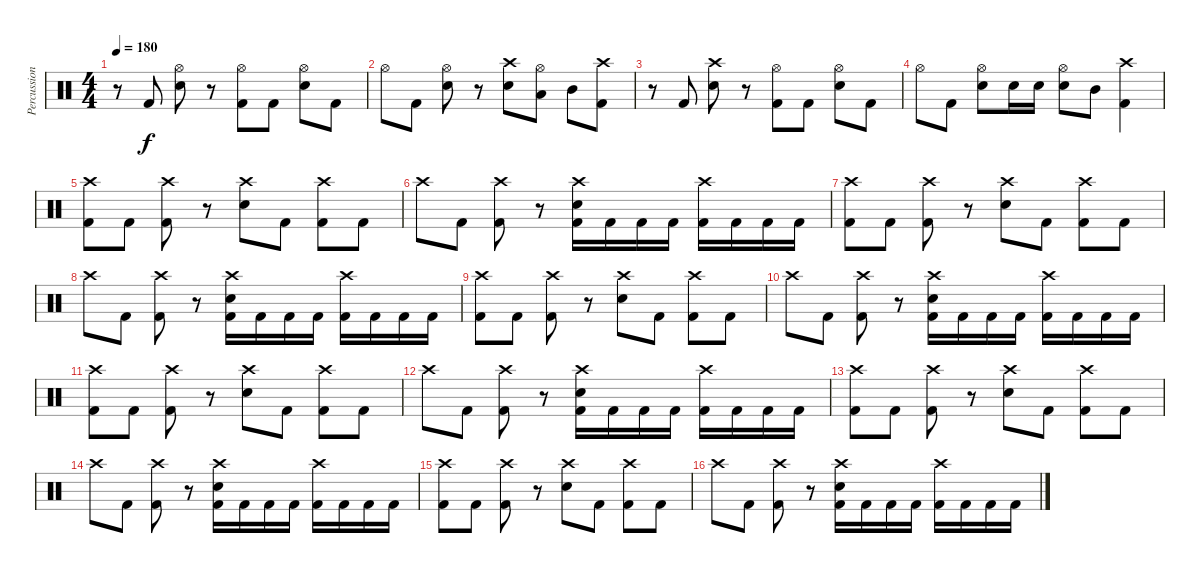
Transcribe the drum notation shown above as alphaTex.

\track ("Percussion" "Percussion") {instrument percussion}
\staff {score}
\articulation defaults
\ts (4 4)
\tempo 180
\clef neutral
\ks c
r.8{dy f} "Kick (hit) 2".8 ("Hi-Hat (open)" "Electric Snare (hit)").8 r.8 ("Hi-Hat (open)" "Kick (hit) 2").8 "Kick (hit) 2".8 ("Hi-Hat (open)" "Electric Snare (hit)").8 "Kick (hit) 2".8 |
"Hi-Hat (open)".8 "Kick (hit) 2".8 ("Hi-Hat (open)" "Electric Snare (hit)").8 r.8 ("Crash high (hit)" "Electric Snare (hit)").8 ("Hi-Hat (open)" "Low Tom (hit)").8 "Mid Tom (hit)".8 ("Crash high (hit)" "Kick (hit) 2").8 |
r.8 "Kick (hit) 2".8 ("Crash high (hit)" "Electric Snare (hit)").8 r.8 ("Hi-Hat (open)" "Kick (hit) 2").8 "Kick (hit) 2".8 ("Hi-Hat (open)" "Electric Snare (hit)").8 "Kick (hit) 2".8 |
"Hi-Hat (open)".8 "Kick (hit) 2".8 ("Hi-Hat (open)" "Electric Snare (hit)").8 "Electric Snare (hit)".16 "Electric Snare (hit)".16 ("Hi-Hat (open)" "Electric Snare (hit)").8 "Mid Tom (hit)".8 ("Crash high (hit)" "Kick (hit) 2").4 |
("Crash high (hit)" "Kick (hit) 2").8 "Kick (hit) 2".8 ("Crash high (hit)" "Kick (hit) 2").8 r.8 ("Crash high (hit)" "Electric Snare (hit)").8 "Kick (hit) 2".8 ("Crash high (hit)" "Kick (hit) 2").8 "Kick (hit) 2".8 |
"Crash high (hit)".8 "Kick (hit) 2".8 ("Crash high (hit)" "Kick (hit) 2").8 r.8 ("Crash high (hit)" "Electric Snare (hit)" "Kick (hit) 2").16 "Kick (hit) 2".16 "Kick (hit) 2".16 "Kick (hit) 2".16 ("Crash high (hit)" "Kick (hit) 2").16 "Kick (hit) 2".16 "Kick (hit) 2".16 "Kick (hit) 2".16 |
("Crash high (hit)" "Kick (hit) 2").8 "Kick (hit) 2".8 ("Crash high (hit)" "Kick (hit) 2").8 r.8 ("Crash high (hit)" "Electric Snare (hit)").8 "Kick (hit) 2".8 ("Crash high (hit)" "Kick (hit) 2").8 "Kick (hit) 2".8 |
"Crash high (hit)".8 "Kick (hit) 2".8 ("Crash high (hit)" "Kick (hit) 2").8 r.8 ("Crash high (hit)" "Electric Snare (hit)" "Kick (hit) 2").16 "Kick (hit) 2".16 "Kick (hit) 2".16 "Kick (hit) 2".16 ("Crash high (hit)" "Kick (hit) 2").16 "Kick (hit) 2".16 "Kick (hit) 2".16 "Kick (hit) 2".16 |
("Crash high (hit)" "Kick (hit) 2").8 "Kick (hit) 2".8 ("Crash high (hit)" "Kick (hit) 2").8 r.8 ("Crash high (hit)" "Electric Snare (hit)").8 "Kick (hit) 2".8 ("Crash high (hit)" "Kick (hit) 2").8 "Kick (hit) 2".8 |
"Crash high (hit)".8 "Kick (hit) 2".8 ("Crash high (hit)" "Kick (hit) 2").8 r.8 ("Crash high (hit)" "Electric Snare (hit)" "Kick (hit) 2").16 "Kick (hit) 2".16 "Kick (hit) 2".16 "Kick (hit) 2".16 ("Crash high (hit)" "Kick (hit) 2").16 "Kick (hit) 2".16 "Kick (hit) 2".16 "Kick (hit) 2".16 |
("Crash high (hit)" "Kick (hit) 2").8 "Kick (hit) 2".8 ("Crash high (hit)" "Kick (hit) 2").8 r.8 ("Crash high (hit)" "Electric Snare (hit)").8 "Kick (hit) 2".8 ("Crash high (hit)" "Kick (hit) 2").8 "Kick (hit) 2".8 |
"Crash high (hit)".8 "Kick (hit) 2".8 ("Crash high (hit)" "Kick (hit) 2").8 r.8 ("Crash high (hit)" "Electric Snare (hit)" "Kick (hit) 2").16 "Kick (hit) 2".16 "Kick (hit) 2".16 "Kick (hit) 2".16 ("Crash high (hit)" "Kick (hit) 2").16 "Kick (hit) 2".16 "Kick (hit) 2".16 "Kick (hit) 2".16 |
("Crash high (hit)" "Kick (hit) 2").8 "Kick (hit) 2".8 ("Crash high (hit)" "Kick (hit) 2").8 r.8 ("Crash high (hit)" "Electric Snare (hit)").8 "Kick (hit) 2".8 ("Crash high (hit)" "Kick (hit) 2").8 "Kick (hit) 2".8 |
"Crash high (hit)".8 "Kick (hit) 2".8 ("Crash high (hit)" "Kick (hit) 2").8 r.8 ("Crash high (hit)" "Electric Snare (hit)" "Kick (hit) 2").16 "Kick (hit) 2".16 "Kick (hit) 2".16 "Kick (hit) 2".16 ("Crash high (hit)" "Kick (hit) 2").16 "Kick (hit) 2".16 "Kick (hit) 2".16 "Kick (hit) 2".16 |
("Crash high (hit)" "Kick (hit) 2").8 "Kick (hit) 2".8 ("Crash high (hit)" "Kick (hit) 2").8 r.8 ("Crash high (hit)" "Electric Snare (hit)").8 "Kick (hit) 2".8 ("Crash high (hit)" "Kick (hit) 2").8 "Kick (hit) 2".8 |
"Crash high (hit)".8 "Kick (hit) 2".8 ("Crash high (hit)" "Kick (hit) 2").8 r.8 ("Crash high (hit)" "Electric Snare (hit)" "Kick (hit) 2").16 "Kick (hit) 2".16 "Kick (hit) 2".16 "Kick (hit) 2".16 ("Crash high (hit)" "Kick (hit) 2").16 "Kick (hit) 2".16 "Kick (hit) 2".16 "Kick (hit) 2".16
